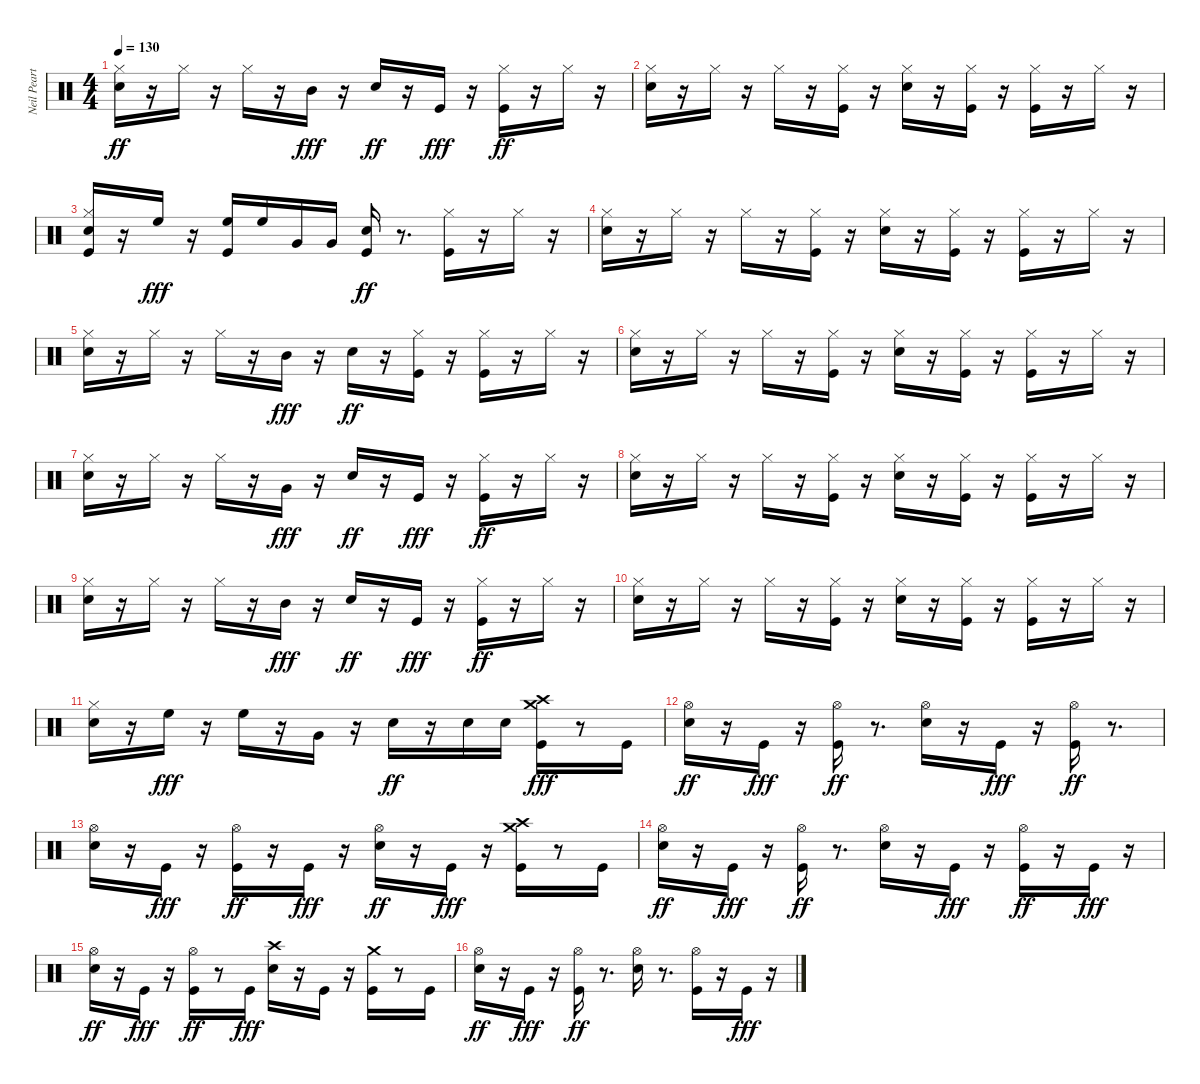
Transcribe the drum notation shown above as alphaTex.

\track ("Neil Peart" "Neil Peart") {instrument percussion}
\staff {score}
\articulation defaults
\ts (4 4)
\tempo 130
\clef neutral
\ks c
("Snare (hit) 2" "Hi-Hat (closed)").16{dy ff} r.16 "Hi-Hat (closed)".16 r.16 "Hi-Hat (closed)".16 r.16 "Mid Tom (hit)".16{dy fff} r.16 "Snare (hit) 2".16{dy ff} r.16 "Kick (hit)".16{dy fff} r.16 ("Kick (hit)" "Hi-Hat (closed)").16{dy ff} r.16 "Hi-Hat (closed)".16 r.16 |
("Snare (hit) 2" "Hi-Hat (closed)").16 r.16 "Hi-Hat (closed)".16 r.16 "Hi-Hat (closed)".16 r.16 ("Kick (hit)" "Hi-Hat (closed)").16 r.16 ("Snare (hit) 2" "Hi-Hat (closed)").16 r.16 ("Kick (hit)" "Hi-Hat (closed)").16 r.16 ("Kick (hit)" "Hi-Hat (closed)").16 r.16 "Hi-Hat (closed)".16 r.16 |
("Kick (hit)" "Snare (hit) 2" "Hi-Hat (closed)").16 r.16 "High Floor Tom (hit)".16{dy fff} r.16 ("Kick (hit)" "High Floor Tom (hit)").16 "High Floor Tom (hit)".16 "Very Low Tom (hit)".16 "Very Low Tom (hit)".16 ("Kick (hit)" "Snare (hit) 2").16{dy ff} r.8{d} ("Kick (hit)" "Hi-Hat (closed)").16 r.16 "Hi-Hat (closed)".16 r.16 |
("Snare (hit) 2" "Hi-Hat (closed)").16 r.16 "Hi-Hat (closed)".16 r.16 "Hi-Hat (closed)".16 r.16 ("Kick (hit)" "Hi-Hat (closed)").16 r.16 ("Snare (hit) 2" "Hi-Hat (closed)").16 r.16 ("Kick (hit)" "Hi-Hat (closed)").16 r.16 ("Kick (hit)" "Hi-Hat (closed)").16 r.16 "Hi-Hat (closed)".16 r.16 |
("Snare (hit) 2" "Hi-Hat (closed)").16 r.16 "Hi-Hat (closed)".16 r.16 "Hi-Hat (closed)".16 r.16 "Mid Tom (hit)".16{dy fff} r.16 "Snare (hit) 2".16{dy ff} r.16 ("Kick (hit)" "Hi-Hat (closed)").16 r.16 ("Kick (hit)" "Hi-Hat (closed)").16 r.16 "Hi-Hat (closed)".16 r.16 |
("Snare (hit) 2" "Hi-Hat (closed)").16 r.16 "Hi-Hat (closed)".16 r.16 "Hi-Hat (closed)".16 r.16 ("Kick (hit)" "Hi-Hat (closed)").16 r.16 ("Snare (hit) 2" "Hi-Hat (closed)").16 r.16 ("Kick (hit)" "Hi-Hat (closed)").16 r.16 ("Kick (hit)" "Hi-Hat (closed)").16 r.16 "Hi-Hat (closed)".16 r.16 |
("Snare (hit) 2" "Hi-Hat (closed)").16 r.16 "Hi-Hat (closed)".16 r.16 "Hi-Hat (closed)".16 r.16 "Very Low Tom (hit)".16{dy fff} r.16 "Snare (hit) 2".16{dy ff} r.16 "Kick (hit)".16{dy fff} r.16 ("Kick (hit)" "Hi-Hat (closed)").16{dy ff} r.16 "Hi-Hat (closed)".16 r.16 |
("Snare (hit) 2" "Hi-Hat (closed)").16 r.16 "Hi-Hat (closed)".16 r.16 "Hi-Hat (closed)".16 r.16 ("Kick (hit)" "Hi-Hat (closed)").16 r.16 ("Snare (hit) 2" "Hi-Hat (closed)").16 r.16 ("Kick (hit)" "Hi-Hat (closed)").16 r.16 ("Kick (hit)" "Hi-Hat (closed)").16 r.16 "Hi-Hat (closed)".16 r.16 |
("Snare (hit) 2" "Hi-Hat (closed)").16 r.16 "Hi-Hat (closed)".16 r.16 "Hi-Hat (closed)".16 r.16 "Mid Tom (hit)".16{dy fff} r.16 "Snare (hit) 2".16{dy ff} r.16 "Kick (hit)".16{dy fff} r.16 ("Kick (hit)" "Hi-Hat (closed)").16{dy ff} r.16 "Hi-Hat (closed)".16 r.16 |
("Snare (hit) 2" "Hi-Hat (closed)").16 r.16 "Hi-Hat (closed)".16 r.16 "Hi-Hat (closed)".16 r.16 ("Kick (hit)" "Hi-Hat (closed)").16 r.16 ("Snare (hit) 2" "Hi-Hat (closed)").16 r.16 ("Kick (hit)" "Hi-Hat (closed)").16 r.16 ("Kick (hit)" "Hi-Hat (closed)").16 r.16 "Hi-Hat (closed)".16 r.16 |
("Snare (hit) 2" "Hi-Hat (closed)").16 r.16 "High Floor Tom (hit)".16{dy fff} r.16 "High Floor Tom (hit)".16 r.16 "Very Low Tom (hit)".16 r.16 "Snare (hit) 2".16{dy ff} r.16 "Snare (hit) 2".16 "Snare (hit) 2".16 ("Crash medium (hit)" "Kick (hit)" "Crash high (hit)").16{dy fff} r.8 "Kick (hit)".16 |
("Snare (hit) 2" "Hi-Hat (open)").16{dy ff} r.16 "Kick (hit)".16{dy fff} r.16 ("Kick (hit)" "Hi-Hat (open)").16{dy ff} r.8{d} ("Snare (hit) 2" "Hi-Hat (open)").16 r.16 "Kick (hit)".16{dy fff} r.16 ("Kick (hit)" "Hi-Hat (open)").16{dy ff} r.8{d} |
("Snare (hit) 2" "Hi-Hat (open)").16 r.16 "Kick (hit)".16{dy fff} r.16 ("Kick (hit)" "Hi-Hat (open)").16{dy ff} r.16 "Kick (hit)".16{dy fff} r.16 ("Snare (hit) 2" "Hi-Hat (open)").16{dy ff} r.16 "Kick (hit)".16{dy fff} r.16 ("Crash medium (hit)" "Kick (hit)" "Crash high (hit)").16 r.8 "Kick (hit)".16 |
("Snare (hit) 2" "Hi-Hat (open)").16{dy ff} r.16 "Kick (hit)".16{dy fff} r.16 ("Kick (hit)" "Hi-Hat (open)").16{dy ff} r.8{d} ("Snare (hit) 2" "Hi-Hat (open)").16 r.16 "Kick (hit)".16{dy fff} r.16 ("Kick (hit)" "Hi-Hat (open)").16{dy ff} r.16 "Kick (hit)".16{dy fff} r.16 |
("Snare (hit) 2" "Hi-Hat (open)").16{dy ff} r.16 "Kick (hit)".16{dy fff} r.16 ("Kick (hit)" "Hi-Hat (open)").16{dy ff} r.8 "Kick (hit)".16{dy fff} ("Snare (hit) 2" "Crash high (hit)").16 r.16 "Kick (hit)".16 r.16 ("Crash medium (hit)" "Kick (hit)").16 r.8 "Kick (hit)".16 |
("Snare (hit) 2" "Hi-Hat (open)").16{dy ff} r.16 "Kick (hit)".16{dy fff} r.16 ("Kick (hit)" "Hi-Hat (open)").16{dy ff} r.8{d} ("Snare (hit) 2" "Hi-Hat (open)").16 r.8{d} ("Kick (hit)" "Hi-Hat (open)").16 r.16 "Kick (hit)".16{dy fff} r.16
